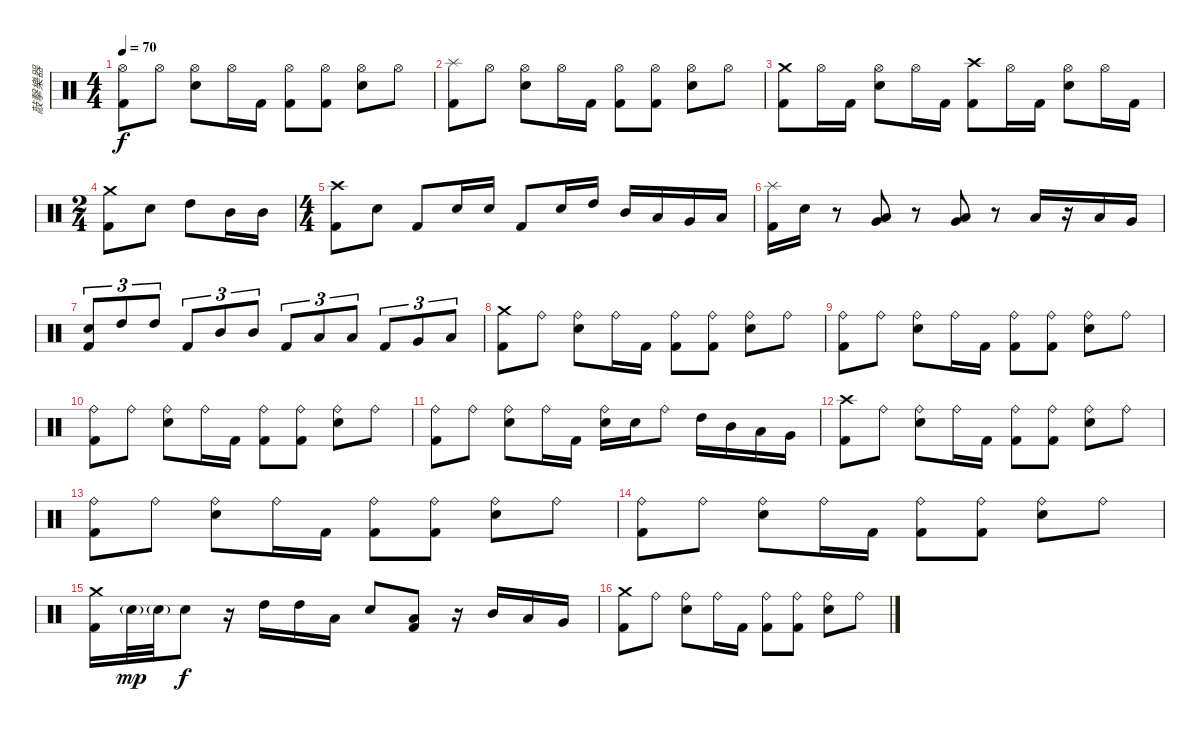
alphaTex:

\track ("敲擊樂器" "敲擊樂器") {instrument percussion}
\staff {score}
\articulation defaults
\ts (4 4)
\tempo 70
\clef neutral
\ks c
("Hi-Hat (open)" "Kick (hit) 2").8{dy f} "Hi-Hat (open)".8 ("Hi-Hat (open)" "Snare (hit) 2").8 "Hi-Hat (open)".16 "Kick (hit) 2".16 ("Hi-Hat (open)" "Kick (hit) 2").8 ("Hi-Hat (open)" "Kick (hit) 2").8 ("Hi-Hat (open)" "Snare (hit) 2").8 "Hi-Hat (open)".8 |
("Splash (hit)" "Kick (hit) 2").8 "Hi-Hat (open)".8 ("Hi-Hat (open)" "Snare (hit) 2").8 "Hi-Hat (open)".16 "Kick (hit) 2".16 ("Hi-Hat (open)" "Kick (hit) 2").8 ("Hi-Hat (open)" "Kick (hit) 2").8 ("Hi-Hat (open)" "Snare (hit) 2").8 "Hi-Hat (open)".8 |
("Crash medium (hit)" "Kick (hit) 2").8 "Hi-Hat (open)".16 "Kick (hit) 2".16 ("Hi-Hat (open)" "Snare (hit) 2").8 "Hi-Hat (open)".16 "Kick (hit) 2".16 ("Crash high (hit)" "Kick (hit) 2").8 "Hi-Hat (open)".16 "Kick (hit) 2".16 ("Hi-Hat (open)" "Snare (hit) 2").8 "Hi-Hat (open)".16 "Kick (hit) 2".16 |
\ts (2 4)
("Crash medium (hit)" "Kick (hit) 2").8 "Snare (hit) 2".8 "High Tom (hit)".8 "Mid Tom (hit)".16 "Mid Tom (hit)".16 |
\ts (4 4)
("Crash high (hit)" "Kick (hit) 2").8 "Snare (hit) 2".8 "Kick (hit) 2".8 "Snare (hit) 2".16 "Snare (hit) 2".16 "Kick (hit) 2".8 "Snare (hit) 2".16 "High Tom (hit)".16 "Mid Tom (hit)".16 "Low Tom (hit)".16 "Very Low Tom (hit)".16 "Low Floor Tom (hit)".16 |
("Splash (hit)" "Kick (hit) 2").16 "Snare (hit) 2".16 r.8 ("Very Low Tom (hit)" "Low Tom (hit)").8 r.8 ("Low Floor Tom (hit)" "Very Low Tom (hit)").8 r.8 "Low Floor Tom (hit)".16 r.16 "Low Tom (hit)".16 "Very Low Tom (hit)".16 |
("Snare (hit) 2" "Kick (hit) 2").8{tu (3 2)} "High Tom (hit)".8{tu (3 2)} "High Tom (hit)".8{tu (3 2)} "Kick (hit) 2".8{tu (3 2)} "Mid Tom (hit)".8{tu (3 2)} "Mid Tom (hit)".8{tu (3 2)} "Kick (hit) 2".8{tu (3 2)} "Low Tom (hit)".8{tu (3 2)} "Low Tom (hit)".8{tu (3 2)} "Kick (hit) 2".8{tu (3 2)} "Very Low Tom (hit)".8{tu (3 2)} "Low Floor Tom (hit)".8{tu (3 2)} |
("Crash medium (hit)" "Kick (hit) 2").8 "Ride (bell)".8 ("Ride (bell)" "Snare (hit) 2").8 "Ride (bell)".16 "Kick (hit) 2".16 ("Ride (bell)" "Kick (hit) 2").8 ("Ride (bell)" "Kick (hit) 2").8 ("Ride (bell)" "Snare (hit) 2").8 "Ride (bell)".8 |
("Ride (bell)" "Kick (hit) 2").8 "Ride (bell)".8 ("Ride (bell)" "Snare (hit) 2").8 "Ride (bell)".16 "Kick (hit) 2".16 ("Ride (bell)" "Kick (hit) 2").8 ("Ride (bell)" "Kick (hit) 2").8 ("Ride (bell)" "Snare (hit) 2").8 "Ride (bell)".8 |
("Ride (bell)" "Kick (hit) 2").8 "Ride (bell)".8 ("Ride (bell)" "Snare (hit) 2").8 "Ride (bell)".16 "Kick (hit) 2".16 ("Ride (bell)" "Kick (hit) 2").8 ("Ride (bell)" "Kick (hit) 2").8 ("Ride (bell)" "Snare (hit) 2").8 "Ride (bell)".8 |
("Ride (bell)" "Kick (hit) 2").8 "Ride (bell)".8 ("Ride (bell)" "Snare (hit) 2").8 "Ride (bell)".16 "Kick (hit) 2".16 ("Ride (bell)" "Snare (hit) 2").16 "Snare (hit) 2".16 "Ride (bell)".8 "High Tom (hit)".16 "Mid Tom (hit)".16 "Low Tom (hit)".16 "Very Low Tom (hit)".16 |
("Crash high (hit)" "Kick (hit) 2").8 "Ride (bell)".8 ("Ride (bell)" "Snare (hit) 2").8 "Ride (bell)".16 "Kick (hit) 2".16 ("Ride (bell)" "Kick (hit) 2").8 ("Ride (bell)" "Kick (hit) 2").8 ("Ride (bell)" "Snare (hit) 2").8 "Ride (bell)".8 |
("Ride (bell)" "Kick (hit) 2").8 "Ride (bell)".8 ("Ride (bell)" "Snare (hit) 2").8 "Ride (bell)".16 "Kick (hit) 2".16 ("Ride (bell)" "Kick (hit) 2").8 ("Ride (bell)" "Kick (hit) 2").8 ("Ride (bell)" "Snare (hit) 2").8 "Ride (bell)".8 |
("Ride (bell)" "Kick (hit) 2").8 "Ride (bell)".8 ("Ride (bell)" "Snare (hit) 2").8 "Ride (bell)".16 "Kick (hit) 2".16 ("Ride (bell)" "Kick (hit) 2").8 ("Ride (bell)" "Kick (hit) 2").8 ("Ride (bell)" "Snare (hit) 2").8 "Ride (bell)".8 |
("Crash medium (hit)" "Kick (hit) 2").16 "Snare (hit) 2"{g}.32{dy mp} "Snare (hit) 2"{g}.32 "Snare (hit) 2".8{dy f} r.16 "High Tom (hit)".16 "High Tom (hit)".16 "Low Floor Tom (hit)".16 "Snare (hit) 2".8 ("Low Tom (hit)" "Kick (hit) 2").8 r.16 "Mid Tom (hit)".16 "Low Tom (hit)".16 "Very Low Tom (hit)".16 |
("Crash medium (hit)" "Kick (hit) 2").8 "Ride (bell)".8 ("Ride (bell)" "Snare (hit) 2").8 "Ride (bell)".16 "Kick (hit) 2".16 ("Ride (bell)" "Kick (hit) 2").8 ("Ride (bell)" "Kick (hit) 2").8 ("Ride (bell)" "Snare (hit) 2").8 "Ride (bell)".8
